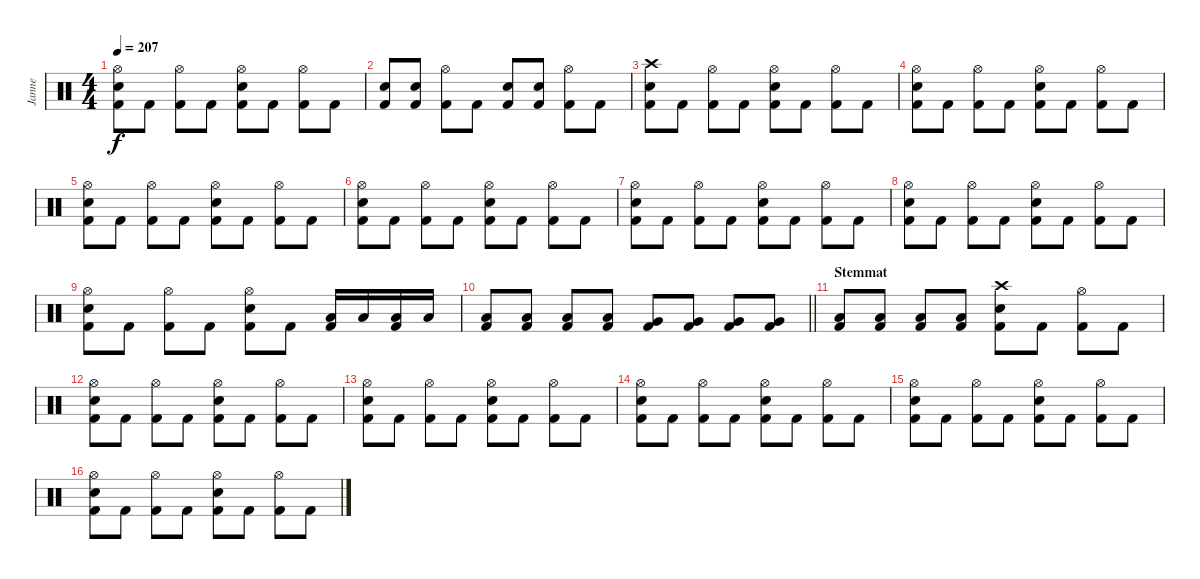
\track ("Janne" "Janne") {instrument percussion}
\staff {score}
\articulation defaults
\ts (4 4)
\tempo 207
\clef neutral
\ks c
("Hi-Hat (open)" "Electric Snare (hit)" "Kick (hit) 2").8{dy f} "Kick (hit) 2".8 ("Hi-Hat (open)" "Kick (hit) 2").8 "Kick (hit) 2".8 ("Hi-Hat (open)" "Electric Snare (hit)" "Kick (hit) 2").8 "Kick (hit) 2".8 ("Hi-Hat (open)" "Kick (hit) 2").8 "Kick (hit) 2".8 |
("Electric Snare (hit)" "Kick (hit) 2").8 ("Electric Snare (hit)" "Kick (hit) 2").8 ("Hi-Hat (open)" "Kick (hit) 2").8 "Kick (hit) 2".8 ("Electric Snare (hit)" "Kick (hit) 2").8 ("Electric Snare (hit)" "Kick (hit) 2").8 ("Hi-Hat (open)" "Kick (hit) 2").8 "Kick (hit) 2".8 |
("Crash high (hit)" "Electric Snare (hit)" "Kick (hit) 2").8 "Kick (hit) 2".8 ("Hi-Hat (open)" "Kick (hit) 2").8 "Kick (hit) 2".8 ("Hi-Hat (open)" "Electric Snare (hit)" "Kick (hit) 2").8 "Kick (hit) 2".8 ("Hi-Hat (open)" "Kick (hit) 2").8 "Kick (hit) 2".8 |
("Hi-Hat (open)" "Electric Snare (hit)" "Kick (hit) 2").8 "Kick (hit) 2".8 ("Hi-Hat (open)" "Kick (hit) 2").8 "Kick (hit) 2".8 ("Hi-Hat (open)" "Electric Snare (hit)" "Kick (hit) 2").8 "Kick (hit) 2".8 ("Hi-Hat (open)" "Kick (hit) 2").8 "Kick (hit) 2".8 |
("Hi-Hat (open)" "Electric Snare (hit)" "Kick (hit) 2").8 "Kick (hit) 2".8 ("Hi-Hat (open)" "Kick (hit) 2").8 "Kick (hit) 2".8 ("Hi-Hat (open)" "Electric Snare (hit)" "Kick (hit) 2").8 "Kick (hit) 2".8 ("Hi-Hat (open)" "Kick (hit) 2").8 "Kick (hit) 2".8 |
("Hi-Hat (open)" "Electric Snare (hit)" "Kick (hit) 2").8 "Kick (hit) 2".8 ("Hi-Hat (open)" "Kick (hit) 2").8 "Kick (hit) 2".8 ("Hi-Hat (open)" "Electric Snare (hit)" "Kick (hit) 2").8 "Kick (hit) 2".8 ("Hi-Hat (open)" "Kick (hit) 2").8 "Kick (hit) 2".8 |
("Hi-Hat (open)" "Electric Snare (hit)" "Kick (hit) 2").8 "Kick (hit) 2".8 ("Hi-Hat (open)" "Kick (hit) 2").8 "Kick (hit) 2".8 ("Hi-Hat (open)" "Electric Snare (hit)" "Kick (hit) 2").8 "Kick (hit) 2".8 ("Hi-Hat (open)" "Kick (hit) 2").8 "Kick (hit) 2".8 |
("Hi-Hat (open)" "Electric Snare (hit)" "Kick (hit) 2").8 "Kick (hit) 2".8 ("Hi-Hat (open)" "Kick (hit) 2").8 "Kick (hit) 2".8 ("Hi-Hat (open)" "Electric Snare (hit)" "Kick (hit) 2").8 "Kick (hit) 2".8 ("Hi-Hat (open)" "Kick (hit) 2").8 "Kick (hit) 2".8 |
("Hi-Hat (open)" "Electric Snare (hit)" "Kick (hit) 2").8 "Kick (hit) 2".8 ("Hi-Hat (open)" "Kick (hit) 2").8 "Kick (hit) 2".8 ("Hi-Hat (open)" "Electric Snare (hit)" "Kick (hit) 2").8 "Kick (hit) 2".8 ("Low Tom (hit)" "Kick (hit) 2").16 "Low Tom (hit)".16 ("Low Tom (hit)" "Kick (hit) 2").16 "Low Tom (hit)".16 |
\barLineRight lightlight
("Low Tom (hit)" "Kick (hit) 2").8 ("Low Tom (hit)" "Kick (hit) 2").8 ("Low Tom (hit)" "Kick (hit) 2").8 ("Low Tom (hit)" "Kick (hit) 2").8 ("Very Low Tom (hit)" "Kick (hit) 2").8 ("Very Low Tom (hit)" "Kick (hit) 2").8 ("Very Low Tom (hit)" "Kick (hit) 2").8 ("Very Low Tom (hit)" "Kick (hit) 2").8 |
\section ("" "Stemmat")
("Low Floor Tom (hit)" "Kick (hit) 2").8 ("Low Floor Tom (hit)" "Kick (hit) 2").8 ("Low Floor Tom (hit)" "Kick (hit) 2").8 ("Low Floor Tom (hit)" "Kick (hit) 2").8 ("Crash high (hit)" "Electric Snare (hit)" "Kick (hit) 2").8 "Kick (hit) 2".8 ("Hi-Hat (open)" "Kick (hit) 2").8 "Kick (hit) 2".8 |
("Hi-Hat (open)" "Electric Snare (hit)" "Kick (hit) 2").8 "Kick (hit) 2".8 ("Hi-Hat (open)" "Kick (hit) 2").8 "Kick (hit) 2".8 ("Hi-Hat (open)" "Electric Snare (hit)" "Kick (hit) 2").8 "Kick (hit) 2".8 ("Hi-Hat (open)" "Kick (hit) 2").8 "Kick (hit) 2".8 |
("Hi-Hat (open)" "Electric Snare (hit)" "Kick (hit) 2").8 "Kick (hit) 2".8 ("Hi-Hat (open)" "Kick (hit) 2").8 "Kick (hit) 2".8 ("Hi-Hat (open)" "Electric Snare (hit)" "Kick (hit) 2").8 "Kick (hit) 2".8 ("Hi-Hat (open)" "Kick (hit) 2").8 "Kick (hit) 2".8 |
("Hi-Hat (open)" "Electric Snare (hit)" "Kick (hit) 2").8 "Kick (hit) 2".8 ("Hi-Hat (open)" "Kick (hit) 2").8 "Kick (hit) 2".8 ("Hi-Hat (open)" "Electric Snare (hit)" "Kick (hit) 2").8 "Kick (hit) 2".8 ("Hi-Hat (open)" "Kick (hit) 2").8 "Kick (hit) 2".8 |
("Hi-Hat (open)" "Electric Snare (hit)" "Kick (hit) 2").8 "Kick (hit) 2".8 ("Hi-Hat (open)" "Kick (hit) 2").8 "Kick (hit) 2".8 ("Hi-Hat (open)" "Electric Snare (hit)" "Kick (hit) 2").8 "Kick (hit) 2".8 ("Hi-Hat (open)" "Kick (hit) 2").8 "Kick (hit) 2".8 |
("Hi-Hat (open)" "Electric Snare (hit)" "Kick (hit) 2").8 "Kick (hit) 2".8 ("Hi-Hat (open)" "Kick (hit) 2").8 "Kick (hit) 2".8 ("Hi-Hat (open)" "Electric Snare (hit)" "Kick (hit) 2").8 "Kick (hit) 2".8 ("Hi-Hat (open)" "Kick (hit) 2").8 "Kick (hit) 2".8
